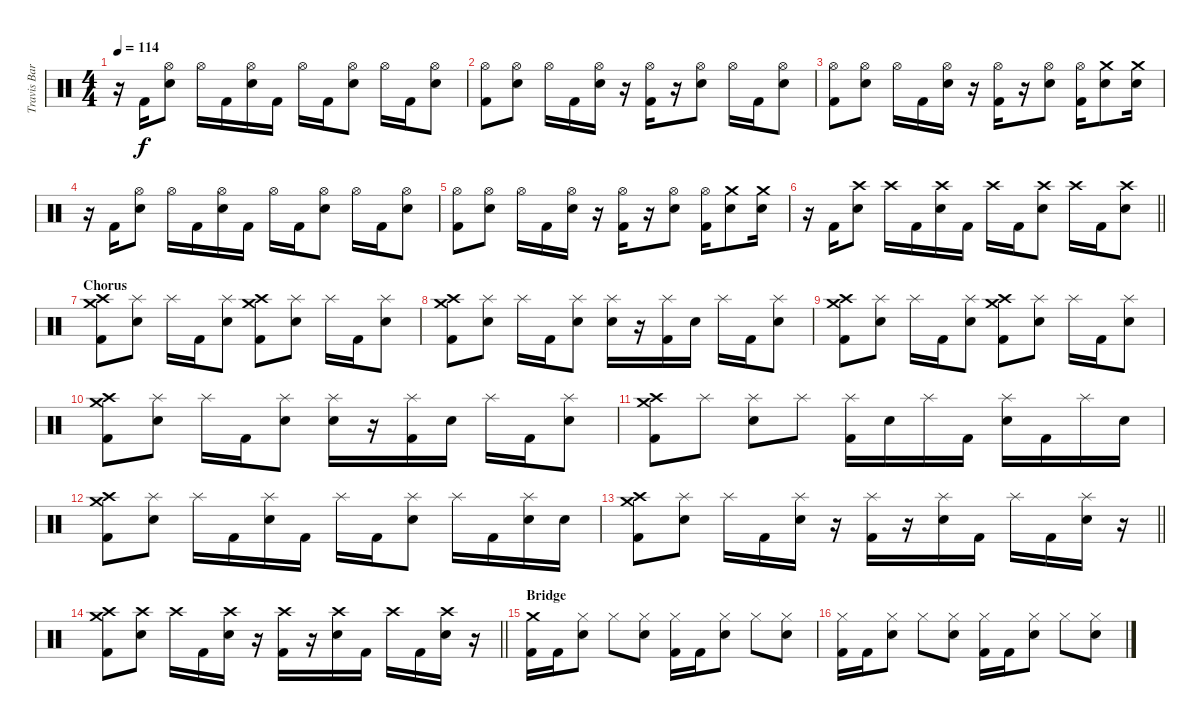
\track ("Travis Barker" "Travis Bar") {instrument percussion}
\staff {score}
\articulation defaults
\ts (4 4)
\tempo 114
\clef neutral
\ks c
r.16{dy f} "Kick (hit) 2".16 ("Hi-Hat (open)" "Electric Snare (hit)").8 "Hi-Hat (open)".16 "Kick (hit) 2".16 ("Hi-Hat (open)" "Electric Snare (hit)").16 "Kick (hit) 2".16 "Hi-Hat (open)".16 "Kick (hit) 2".16 ("Hi-Hat (open)" "Electric Snare (hit)").8 "Hi-Hat (open)".16 "Kick (hit) 2".16 ("Hi-Hat (open)" "Electric Snare (hit)").8 |
("Hi-Hat (open)" "Kick (hit) 2").8 ("Hi-Hat (open)" "Electric Snare (hit)").8 "Hi-Hat (open)".16 "Kick (hit) 2".16 ("Hi-Hat (open)" "Electric Snare (hit)").16 r.16 ("Hi-Hat (open)" "Kick (hit) 2").16 r.16 ("Hi-Hat (open)" "Electric Snare (hit)").8 "Hi-Hat (open)".16 "Kick (hit) 2".16 ("Hi-Hat (open)" "Electric Snare (hit)").8 |
("Hi-Hat (open)" "Kick (hit) 2").8 ("Hi-Hat (open)" "Electric Snare (hit)").8 "Hi-Hat (open)".16 "Kick (hit) 2".16 ("Hi-Hat (open)" "Electric Snare (hit)").16 r.16 ("Hi-Hat (open)" "Kick (hit) 2").16 r.16 ("Hi-Hat (open)" "Electric Snare (hit)").8 ("Hi-Hat (open)" "Kick (hit) 2").16 ("Crash medium (hit)" "Electric Snare (hit)").8 ("Crash medium (hit)" "Electric Snare (hit)").16 |
r.16 "Kick (hit) 2".16 ("Hi-Hat (open)" "Electric Snare (hit)").8 "Hi-Hat (open)".16 "Kick (hit) 2".16 ("Hi-Hat (open)" "Electric Snare (hit)").16 "Kick (hit) 2".16 "Hi-Hat (open)".16 "Kick (hit) 2".16 ("Hi-Hat (open)" "Electric Snare (hit)").8 "Hi-Hat (open)".16 "Kick (hit) 2".16 ("Hi-Hat (open)" "Electric Snare (hit)").8 |
("Hi-Hat (open)" "Kick (hit) 2").8 ("Hi-Hat (open)" "Electric Snare (hit)").8 "Hi-Hat (open)".16 "Kick (hit) 2".16 ("Hi-Hat (open)" "Electric Snare (hit)").16 r.16 ("Hi-Hat (open)" "Kick (hit) 2").16 r.16 ("Hi-Hat (open)" "Electric Snare (hit)").8 ("Hi-Hat (open)" "Kick (hit) 2").16 ("Crash medium (hit)" "Electric Snare (hit)").8 ("Crash medium (hit)" "Electric Snare (hit)").16 |
\barLineRight lightlight
r.16 "Kick (hit) 2".16 ("Crash high (hit)" "Electric Snare (hit)").8 "Crash high (hit)".16 "Kick (hit) 2".16 ("Crash high (hit)" "Electric Snare (hit)").16 "Kick (hit) 2".16 "Crash high (hit)".16 "Kick (hit) 2".16 ("Crash high (hit)" "Electric Snare (hit)").8 "Crash high (hit)".16 "Kick (hit) 2".16 ("Crash high (hit)" "Electric Snare (hit)").8 |
\section ("" "Chorus")
("Crash medium (hit)" "Crash high (hit)" "Kick (hit) 2").8 ("Splash (hit)" "Electric Snare (hit)").8 "Splash (hit)".16 "Kick (hit) 2".16 ("Splash (hit)" "Electric Snare (hit)").8 ("Crash medium (hit)" "Crash high (hit)" "Kick (hit) 2").8 ("Splash (hit)" "Electric Snare (hit)").8 "Splash (hit)".16 "Kick (hit) 2".16 ("Splash (hit)" "Electric Snare (hit)").8 |
("Crash medium (hit)" "Crash high (hit)" "Kick (hit) 2").8 ("Splash (hit)" "Electric Snare (hit)").8 "Splash (hit)".16 "Kick (hit) 2".16 ("Splash (hit)" "Electric Snare (hit)").8 ("Splash (hit)" "Electric Snare (hit)").16 r.16 ("Splash (hit)" "Kick (hit) 2").16 "Electric Snare (hit)".16 "Splash (hit)".16 "Kick (hit) 2".16 ("Splash (hit)" "Electric Snare (hit)").8 |
("Crash medium (hit)" "Crash high (hit)" "Kick (hit) 2").8 ("Splash (hit)" "Electric Snare (hit)").8 "Splash (hit)".16 "Kick (hit) 2".16 ("Splash (hit)" "Electric Snare (hit)").8 ("Crash medium (hit)" "Crash high (hit)" "Kick (hit) 2").8 ("Splash (hit)" "Electric Snare (hit)").8 "Splash (hit)".16 "Kick (hit) 2".16 ("Splash (hit)" "Electric Snare (hit)").8 |
("Crash medium (hit)" "Crash high (hit)" "Kick (hit) 2").8 ("Splash (hit)" "Electric Snare (hit)").8 "Splash (hit)".16 "Kick (hit) 2".16 ("Splash (hit)" "Electric Snare (hit)").8 ("Splash (hit)" "Electric Snare (hit)").16 r.16 ("Splash (hit)" "Kick (hit) 2").16 "Electric Snare (hit)".16 "Splash (hit)".16 "Kick (hit) 2".16 ("Splash (hit)" "Electric Snare (hit)").8 |
("Crash medium (hit)" "Crash high (hit)" "Kick (hit) 2").8 "Splash (hit)".8 ("Splash (hit)" "Electric Snare (hit)").8 "Splash (hit)".8 ("Splash (hit)" "Kick (hit) 2").16 "Electric Snare (hit)".16 "Splash (hit)".16 "Kick (hit) 2".16 ("Splash (hit)" "Electric Snare (hit)").16 "Kick (hit) 2".16 "Splash (hit)".16 "Electric Snare (hit)".16 |
("Crash medium (hit)" "Crash high (hit)" "Kick (hit) 2").8 ("Splash (hit)" "Electric Snare (hit)").8 "Splash (hit)".16 "Kick (hit) 2".16 ("Splash (hit)" "Electric Snare (hit)").16 "Kick (hit) 2".16 "Splash (hit)".16 "Kick (hit) 2".16 ("Splash (hit)" "Electric Snare (hit)").8 "Splash (hit)".16 "Kick (hit) 2".16 ("Splash (hit)" "Electric Snare (hit)").16 "Electric Snare (hit)".16 |
\barLineRight lightlight
("Crash medium (hit)" "Crash high (hit)" "Kick (hit) 2").8 ("Splash (hit)" "Electric Snare (hit)").8 "Splash (hit)".16 "Kick (hit) 2".16 ("Splash (hit)" "Electric Snare (hit)").16 r.16 ("Splash (hit)" "Kick (hit) 2").16 r.16 ("Splash (hit)" "Electric Snare (hit)").16 "Kick (hit) 2".16 "Splash (hit)".16 "Kick (hit) 2".16 ("Splash (hit)" "Electric Snare (hit)").16 r.16 |
\barLineRight lightlight
("Crash medium (hit)" "Crash high (hit)" "Kick (hit) 2").8 ("Crash high (hit)" "Electric Snare (hit)").8 "Crash high (hit)".16 "Kick (hit) 2".16 ("Crash high (hit)" "Electric Snare (hit)").16 r.16 ("Crash high (hit)" "Kick (hit) 2").16 r.16 ("Crash high (hit)" "Electric Snare (hit)").16 "Kick (hit) 2".16 "Crash high (hit)".16 "Kick (hit) 2".16 ("Crash high (hit)" "Electric Snare (hit)").16 r.16 |
\section ("" "Bridge")
("Crash medium (hit)" "Kick (hit) 2").16 "Kick (hit) 2".16 ("Hi-Hat (closed)" "Electric Snare (hit)").8 "Hi-Hat (closed)".8 ("Hi-Hat (closed)" "Electric Snare (hit)").8 ("Hi-Hat (closed)" "Kick (hit) 2").16 "Kick (hit) 2".16 ("Hi-Hat (closed)" "Electric Snare (hit)").8 "Hi-Hat (closed)".8 ("Hi-Hat (closed)" "Electric Snare (hit)").8 |
("Hi-Hat (closed)" "Kick (hit) 2").16 "Kick (hit) 2".16 ("Hi-Hat (closed)" "Electric Snare (hit)").8 "Hi-Hat (closed)".8 ("Hi-Hat (closed)" "Electric Snare (hit)").8 ("Hi-Hat (closed)" "Kick (hit) 2").16 "Kick (hit) 2".16 ("Hi-Hat (closed)" "Electric Snare (hit)").8 "Hi-Hat (closed)".8 ("Hi-Hat (closed)" "Electric Snare (hit)").8
